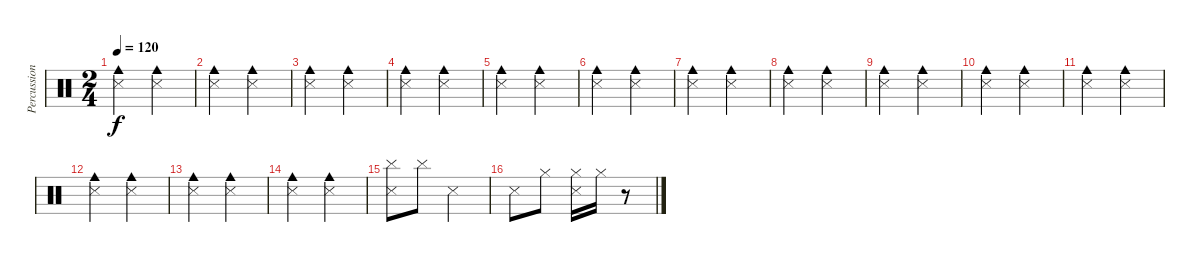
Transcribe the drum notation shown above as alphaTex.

\track ("Percussion" "Percussion") {instrument percussion}
\staff {score}
\articulation defaults
\ts (2 4)
\tempo 120
\clef neutral
\ks aminor
("Snare (side stick) 3" "Cowbell medium (hit)").4{dy f} ("Snare (side stick) 3" "Cowbell medium (hit)").4 |
("Snare (side stick) 3" "Cowbell medium (hit)").4 ("Snare (side stick) 3" "Cowbell medium (hit)").4 |
("Snare (side stick) 3" "Cowbell medium (hit)").4 ("Snare (side stick) 3" "Cowbell medium (hit)").4 |
("Snare (side stick) 3" "Cowbell medium (hit)").4 ("Snare (side stick) 3" "Cowbell medium (hit)").4 |
("Snare (side stick) 3" "Cowbell medium (hit)").4 ("Snare (side stick) 3" "Cowbell medium (hit)").4 |
("Snare (side stick) 3" "Cowbell medium (hit)").4 ("Snare (side stick) 3" "Cowbell medium (hit)").4 |
("Snare (side stick) 3" "Cowbell medium (hit)").4 ("Snare (side stick) 3" "Cowbell medium (hit)").4 |
("Snare (side stick) 3" "Cowbell medium (hit)").4 ("Snare (side stick) 3" "Cowbell medium (hit)").4 |
("Snare (side stick) 3" "Cowbell medium (hit)").4 ("Snare (side stick) 3" "Cowbell medium (hit)").4 |
("Snare (side stick) 3" "Cowbell medium (hit)").4 ("Snare (side stick) 3" "Cowbell medium (hit)").4 |
("Snare (side stick) 3" "Cowbell medium (hit)").4 ("Snare (side stick) 3" "Cowbell medium (hit)").4 |
("Snare (side stick) 3" "Cowbell medium (hit)").4 ("Snare (side stick) 3" "Cowbell medium (hit)").4 |
("Snare (side stick) 3" "Cowbell medium (hit)").4 ("Snare (side stick) 3" "Cowbell medium (hit)").4 |
("Snare (side stick) 3" "Cowbell medium (hit)").4 ("Snare (side stick) 3" "Cowbell medium (hit)").4 |
("Snare (side stick) 3" "Cymbal (hit)").8 "Cymbal (hit)".8 "Snare (side stick) 3".4 |
"Snare (side stick) 3".8 "Hi-Hat (closed)".8 ("Snare (side stick) 3" "Hi-Hat (closed)").16 "Hi-Hat (closed)".16 r.8
